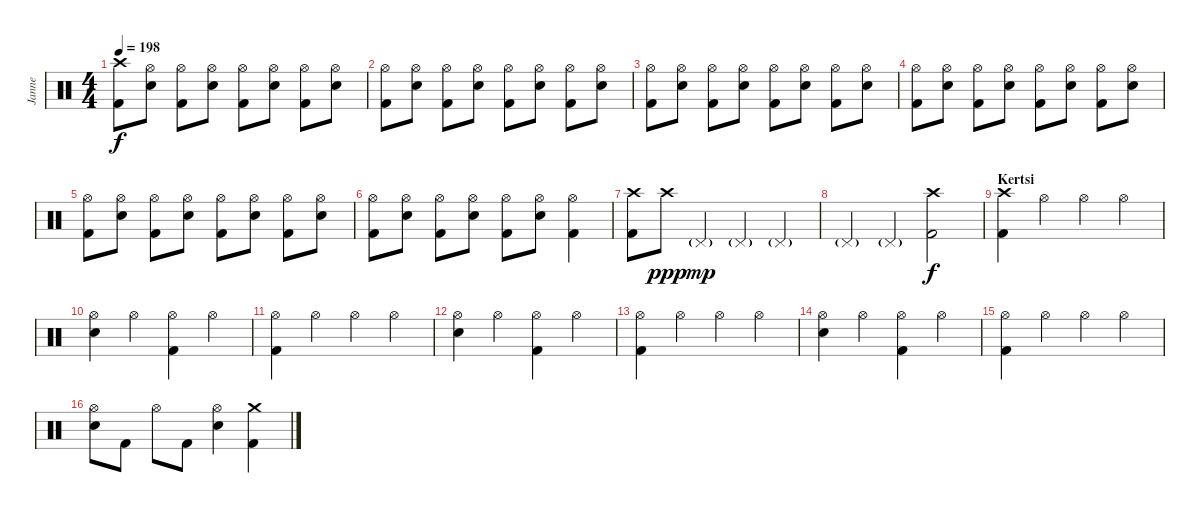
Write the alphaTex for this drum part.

\track ("Janne" "Janne") {instrument percussion}
\staff {score}
\articulation defaults
\ts (4 4)
\tempo 198
\clef neutral
\ks c
("Crash high (hit)" "Kick (hit) 2").8{dy f} ("Hi-Hat (open)" "Electric Snare (hit)").8 ("Hi-Hat (open)" "Kick (hit) 2").8 ("Hi-Hat (open)" "Electric Snare (hit)").8 ("Hi-Hat (open)" "Kick (hit) 2").8 ("Hi-Hat (open)" "Electric Snare (hit)").8 ("Hi-Hat (open)" "Kick (hit) 2").8 ("Hi-Hat (open)" "Electric Snare (hit)").8 |
("Hi-Hat (open)" "Kick (hit) 2").8 ("Hi-Hat (open)" "Electric Snare (hit)").8 ("Hi-Hat (open)" "Kick (hit) 2").8 ("Hi-Hat (open)" "Electric Snare (hit)").8 ("Hi-Hat (open)" "Kick (hit) 2").8 ("Hi-Hat (open)" "Electric Snare (hit)").8 ("Hi-Hat (open)" "Kick (hit) 2").8 ("Hi-Hat (open)" "Electric Snare (hit)").8 |
("Hi-Hat (open)" "Kick (hit) 2").8 ("Hi-Hat (open)" "Electric Snare (hit)").8 ("Hi-Hat (open)" "Kick (hit) 2").8 ("Hi-Hat (open)" "Electric Snare (hit)").8 ("Hi-Hat (open)" "Kick (hit) 2").8 ("Hi-Hat (open)" "Electric Snare (hit)").8 ("Hi-Hat (open)" "Kick (hit) 2").8 ("Hi-Hat (open)" "Electric Snare (hit)").8 |
("Hi-Hat (open)" "Kick (hit) 2").8 ("Hi-Hat (open)" "Electric Snare (hit)").8 ("Hi-Hat (open)" "Kick (hit) 2").8 ("Hi-Hat (open)" "Electric Snare (hit)").8 ("Hi-Hat (open)" "Kick (hit) 2").8 ("Hi-Hat (open)" "Electric Snare (hit)").8 ("Hi-Hat (open)" "Kick (hit) 2").8 ("Hi-Hat (open)" "Electric Snare (hit)").8 |
("Hi-Hat (open)" "Kick (hit) 2").8 ("Hi-Hat (open)" "Electric Snare (hit)").8 ("Hi-Hat (open)" "Kick (hit) 2").8 ("Hi-Hat (open)" "Electric Snare (hit)").8 ("Hi-Hat (open)" "Kick (hit) 2").8 ("Hi-Hat (open)" "Electric Snare (hit)").8 ("Hi-Hat (open)" "Kick (hit) 2").8 ("Hi-Hat (open)" "Electric Snare (hit)").8 |
("Hi-Hat (open)" "Kick (hit) 2").8 ("Hi-Hat (open)" "Electric Snare (hit)").8 ("Hi-Hat (open)" "Kick (hit) 2").8 ("Hi-Hat (open)" "Electric Snare (hit)").8 ("Hi-Hat (open)" "Kick (hit) 2").8 ("Hi-Hat (open)" "Electric Snare (hit)").8 ("Hi-Hat (open)" "Kick (hit) 2").4 |
("Crash high (hit)" "Kick (hit) 2").8 "Crash high (hit)".8{dy ppp} "Pedal Hi-Hat (hit)"{g}.4{dy mp} "Pedal Hi-Hat (hit)"{g}.4 "Pedal Hi-Hat (hit)"{g}.4 |
"Pedal Hi-Hat (hit)"{g}.4 "Pedal Hi-Hat (hit)"{g}.4 ("Crash high (hit)" "Kick (hit) 2").2{dy f} |
\section ("" "Kertsi")
("Crash high (hit)" "Kick (hit) 2").4 "Hi-Hat (open)".4 "Hi-Hat (open)".4 "Hi-Hat (open)".4 |
("Hi-Hat (open)" "Electric Snare (hit)").4 "Hi-Hat (open)".4 ("Hi-Hat (open)" "Kick (hit) 2").4 "Hi-Hat (open)".4 |
("Hi-Hat (open)" "Kick (hit) 2").4 "Hi-Hat (open)".4 "Hi-Hat (open)".4 "Hi-Hat (open)".4 |
("Hi-Hat (open)" "Electric Snare (hit)").4 "Hi-Hat (open)".4 ("Hi-Hat (open)" "Kick (hit) 2").4 "Hi-Hat (open)".4 |
("Hi-Hat (open)" "Kick (hit) 2").4 "Hi-Hat (open)".4 "Hi-Hat (open)".4 "Hi-Hat (open)".4 |
("Hi-Hat (open)" "Electric Snare (hit)").4 "Hi-Hat (open)".4 ("Hi-Hat (open)" "Kick (hit) 2").4 "Hi-Hat (open)".4 |
("Hi-Hat (open)" "Kick (hit) 2").4 "Hi-Hat (open)".4 "Hi-Hat (open)".4 "Hi-Hat (open)".4 |
("Hi-Hat (open)" "Electric Snare (hit)").8 "Kick (hit) 2".8 "Hi-Hat (open)".8 "Kick (hit) 2".8 ("Hi-Hat (open)" "Electric Snare (hit)").4 ("Crash medium (hit)" "Kick (hit) 2").4
